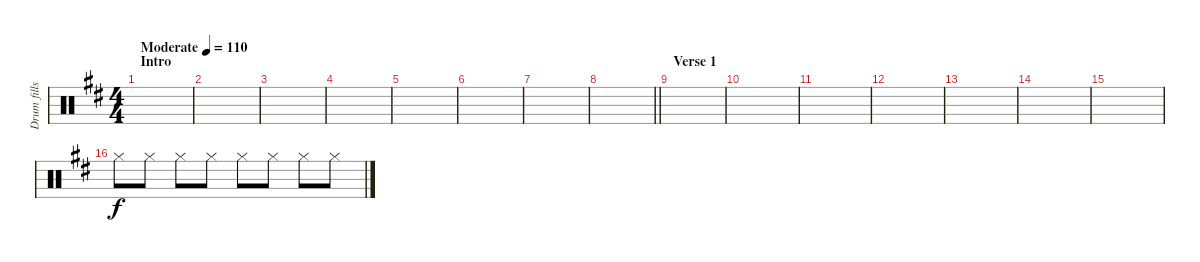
\track ("Drum fills" "Drum fills") {instrument percussion}
\staff {score}
\articulation defaults
\ts (4 4)
\section ("" "Intro")
\tempo (110 "Moderate")
\clef neutral
\ks d
|
|
|
|
|
|
|
\barLineRight lightlight
|
\section ("" "Verse 1")
|
|
|
|
|
|
|
"Hi-Hat (closed)".8 "Hi-Hat (closed)".8 "Hi-Hat (closed)".8 "Hi-Hat (closed)".8 "Hi-Hat (closed)".8 "Hi-Hat (closed)".8 "Hi-Hat (closed)".8 "Hi-Hat (closed)".8
